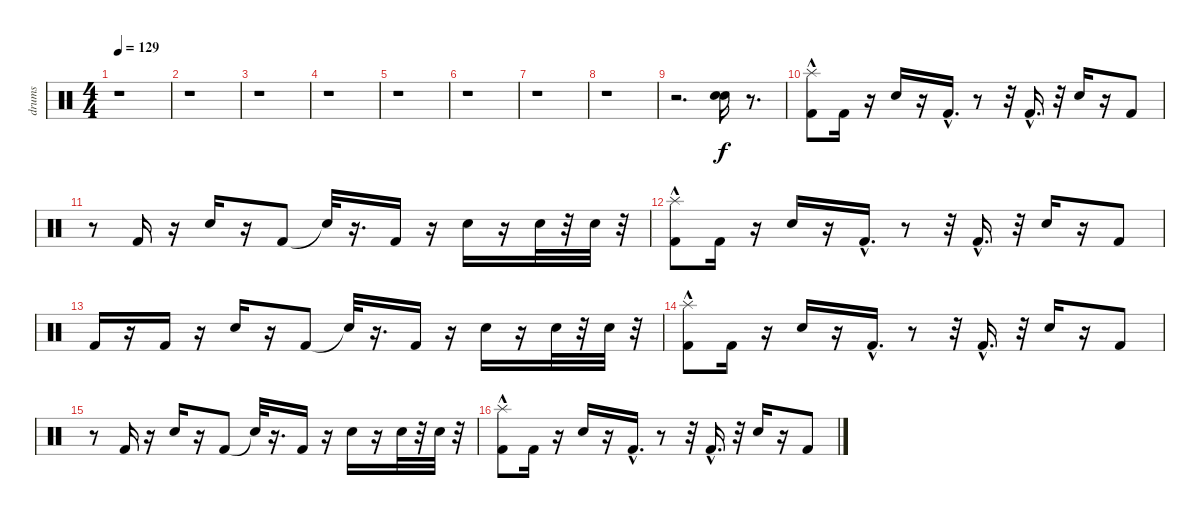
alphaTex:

\track ("drums" "drums") {instrument percussion}
\staff {score}
\articulation defaults
\ts (4 4)
\tempo 129
\clef neutral
\ks c
r.1{dy f} |
r.1 |
r.1 |
r.1 |
r.1 |
r.1 |
r.1 |
r.1 |
r.2{d} ("Snare (hit) 2" "Snare (hit) 2").16 r.8{d} |
("Kick (hit) 2" "Splash (hit)"{hac}).8 "Kick (hit) 2".16 r.16 "Snare (hit) 2".16 r.16 "Kick (hit) 2"{hac}.16{d} r.8 r.32 "Kick (hit) 2"{hac}.16{d} r.32 "Snare (hit) 2".16 r.16 "Kick (hit) 2".8 |
r.8 "Kick (hit) 2".16 r.16 "Snare (hit) 2".16 r.16 "Kick (hit) 2".8 "Snare (hit)"{t}.32 r.16{d} "Kick (hit) 2".16 r.16 "Snare (hit) 2".16 r.16 "Snare (hit) 2".32 r.32 "Snare (hit) 2".32 r.32 |
("Kick (hit) 2" "Splash (hit)"{hac}).8 "Kick (hit) 2".16 r.16 "Snare (hit) 2".16 r.16 "Kick (hit) 2"{hac}.16{d} r.8 r.32 "Kick (hit) 2"{hac}.16{d} r.32 "Snare (hit) 2".16 r.16 "Kick (hit) 2".8 |
"Kick (hit) 2".16 r.16 "Kick (hit) 2".16 r.16 "Snare (hit) 2".16 r.16 "Kick (hit) 2".8 "Snare (hit)"{t}.32 r.16{d} "Kick (hit) 2".16 r.16 "Snare (hit) 2".16 r.16 "Snare (hit) 2".32 r.32 "Snare (hit) 2".32 r.32 |
("Kick (hit) 2" "Splash (hit)"{hac}).8 "Kick (hit) 2".16 r.16 "Snare (hit) 2".16 r.16 "Kick (hit) 2"{hac}.16{d} r.8 r.32 "Kick (hit) 2"{hac}.16{d} r.32 "Snare (hit) 2".16 r.16 "Kick (hit) 2".8 |
r.8 "Kick (hit) 2".16 r.16 "Snare (hit) 2".16 r.16 "Kick (hit) 2".8 "Snare (hit)"{t}.32 r.16{d} "Kick (hit) 2".16 r.16 "Snare (hit) 2".16 r.16 "Snare (hit) 2".32 r.32 "Snare (hit) 2".32 r.32 |
("Kick (hit) 2" "Splash (hit)"{hac}).8 "Kick (hit) 2".16 r.16 "Snare (hit) 2".16 r.16 "Kick (hit) 2"{hac}.16{d} r.8 r.32 "Kick (hit) 2"{hac}.16{d} r.32 "Snare (hit) 2".16 r.16 "Kick (hit) 2".8
